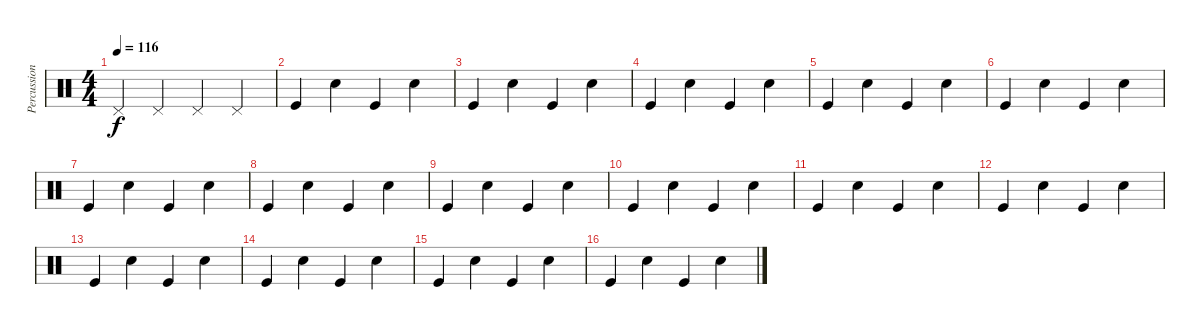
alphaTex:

\track ("Percussions" "Percussion") {instrument percussion}
\staff {score}
\articulation defaults
\ts (4 4)
\tempo 116
\clef neutral
\ks c "Pedal Hi-Hat (hit)".4{dy f} "Pedal Hi-Hat (hit)".4 "Pedal Hi-Hat (hit)".4 "Pedal Hi-Hat (hit)".4
|
"Kick (hit)".4 "Snare (hit) 2".4 "Kick (hit)".4 "Snare (hit) 2".4 |
"Kick (hit)".4 "Snare (hit) 2".4 "Kick (hit)".4 "Snare (hit) 2".4 |
"Kick (hit)".4 "Snare (hit) 2".4 "Kick (hit)".4 "Snare (hit) 2".4 |
"Kick (hit)".4 "Snare (hit) 2".4 "Kick (hit)".4 "Snare (hit) 2".4 |
"Kick (hit)".4 "Snare (hit) 2".4 "Kick (hit)".4 "Snare (hit) 2".4 |
"Kick (hit)".4 "Snare (hit) 2".4 "Kick (hit)".4 "Snare (hit) 2".4 |
"Kick (hit)".4 "Snare (hit) 2".4 "Kick (hit)".4 "Snare (hit) 2".4 |
"Kick (hit)".4 "Snare (hit) 2".4 "Kick (hit)".4 "Snare (hit) 2".4 |
"Kick (hit)".4 "Snare (hit) 2".4 "Kick (hit)".4 "Snare (hit) 2".4 |
"Kick (hit)".4 "Snare (hit) 2".4 "Kick (hit)".4 "Snare (hit) 2".4 |
"Kick (hit)".4 "Snare (hit) 2".4 "Kick (hit)".4 "Snare (hit) 2".4 |
"Kick (hit)".4 "Snare (hit) 2".4 "Kick (hit)".4 "Snare (hit) 2".4 |
"Kick (hit)".4 "Snare (hit) 2".4 "Kick (hit)".4 "Snare (hit) 2".4 |
"Kick (hit)".4 "Snare (hit) 2".4 "Kick (hit)".4 "Snare (hit) 2".4 |
"Kick (hit)".4 "Snare (hit) 2".4 "Kick (hit)".4 "Snare (hit) 2".4
